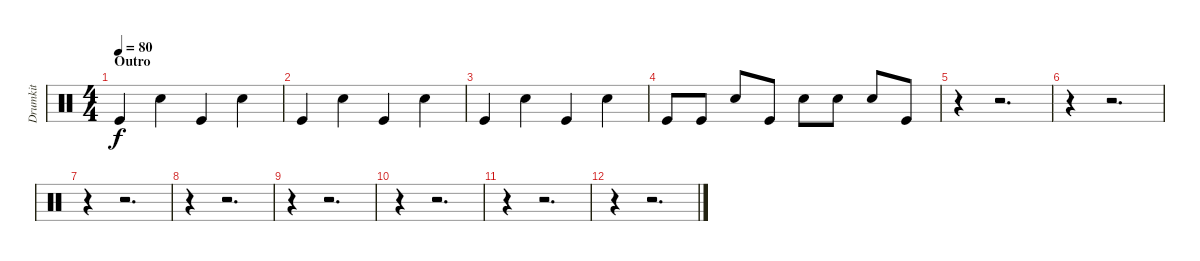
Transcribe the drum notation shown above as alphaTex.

\track ("Drumkit" "Drumkit") {instrument percussion}
\staff {score}
\articulation defaults
\ts (4 4)
\section ("" "Outro")
\tempo 80
\clef neutral
\ks c "Kick (hit)".4{dy f} "Snare (hit) 2".4 "Kick (hit)".4 "Snare (hit) 2".4
|
"Kick (hit)".4 "Snare (hit) 2".4 "Kick (hit)".4 "Snare (hit) 2".4 |
"Kick (hit)".4 "Snare (hit) 2".4 "Kick (hit)".4 "Snare (hit) 2".4 |
"Kick (hit)".8 "Kick (hit)".8 "Snare (hit) 2".8 "Kick (hit)".8 "Snare (hit) 2".8 "Snare (hit) 2".8 "Snare (hit) 2".8 "Kick (hit)".8 |
r.4 r.2{d} |
r.4 r.2{d} |
r.4 r.2{d} |
r.4 r.2{d} |
r.4 r.2{d} |
r.4 r.2{d} |
r.4 r.2{d} |
r.4 r.2{d}
